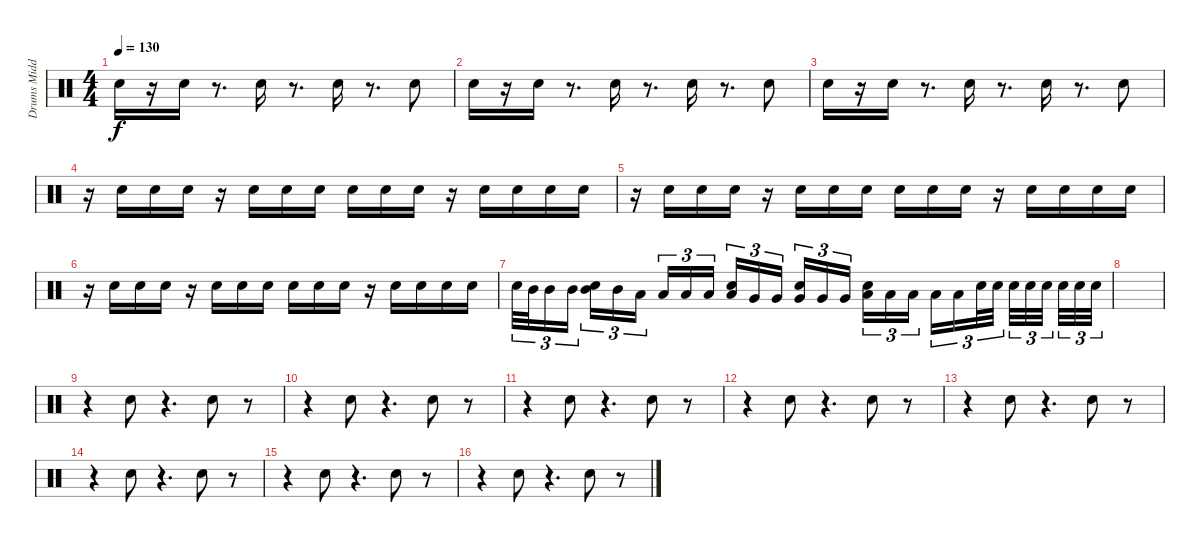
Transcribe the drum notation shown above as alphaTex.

\track ("Drums Middle" "Drums Midd") {instrument percussion}
\staff {score}
\articulation defaults
\ts (4 4)
\tempo 130
\clef neutral
\ks c "Electric Snare (hit)".16{dy f}
r.16 "Electric Snare (hit)".16 r.8{d} "Electric Snare (hit)".16 r.8{d} "Electric Snare (hit)".16 r.8{d} "Electric Snare (hit)".8 |
"Electric Snare (hit)".16 r.16 "Electric Snare (hit)".16 r.8{d} "Electric Snare (hit)".16 r.8{d} "Electric Snare (hit)".16 r.8{d} "Electric Snare (hit)".8 |
"Electric Snare (hit)".16 r.16 "Electric Snare (hit)".16 r.8{d} "Electric Snare (hit)".16 r.8{d} "Electric Snare (hit)".16 r.8{d} "Electric Snare (hit)".8 |
r.16 "Snare (hit) 2".16 "Snare (hit) 2".16 "Snare (hit) 2".16 r.16 "Electric Snare (hit)".16 "Snare (hit) 2".16 "Snare (hit) 2".16 "Electric Snare (hit)".16 "Electric Snare (hit)".16 "Snare (hit) 2".16 r.16 "Snare (hit) 2".16 "Electric Snare (hit)".16 "Electric Snare (hit)".16 "Snare (hit) 2".16 |
r.16 "Snare (hit) 2".16 "Snare (hit) 2".16 "Snare (hit) 2".16 r.16 "Electric Snare (hit)".16 "Snare (hit) 2".16 "Snare (hit) 2".16 "Electric Snare (hit)".16 "Electric Snare (hit)".16 "Snare (hit) 2".16 r.16 "Snare (hit) 2".16 "Electric Snare (hit)".16 "Electric Snare (hit)".16 "Snare (hit) 2".16 |
r.16 "Snare (hit) 2".16 "Snare (hit) 2".16 "Snare (hit) 2".16 r.16 "Electric Snare (hit)".16 "Snare (hit) 2".16 "Snare (hit) 2".16 "Electric Snare (hit)".16 "Electric Snare (hit)".16 "Snare (hit) 2".16 r.16 "Snare (hit) 2".16 "Electric Snare (hit)".16 "Electric Snare (hit)".16 "Snare (hit) 2".16 |
"Electric Snare (hit)".32{tu (3 2)} "Mid Tom (hit)".32{tu (3 2)} "Mid Tom (hit)".16{tu (3 2)} "Mid Tom (hit)".16{tu (3 2) beam splitsecondary} ("Electric Snare (hit)" "Mid Tom (hit)").16{tu (3 2)} "Mid Tom (hit)".16{tu (3 2)} "Low Tom (hit)".16{tu (3 2)} "Low Tom (hit)".16{tu (3 2)} "Low Tom (hit)".16{tu (3 2)} "Low Tom (hit)".16{tu (3 2) beam splitsecondary} ("Electric Snare (hit)" "Low Tom (hit)").16{tu (3 2)} "Very Low Tom (hit)".16{tu (3 2)} "Very Low Tom (hit)".16{tu (3 2)} ("Electric Snare (hit)" "Very Low Tom (hit)").16{tu (3 2)} "Very Low Tom (hit)".16{tu (3 2)} "Very Low Tom (hit)".16{tu (3 2) beam splitsecondary} ("Electric Snare (hit)" "Low Floor Tom (hit)").16{tu (3 2)} "Low Floor Tom (hit)".16{tu (3 2)} "Low Floor Tom (hit)".16{tu (3 2)} "Low Floor Tom (hit)".16{tu (3 2)} "Low Floor Tom (hit)".16{tu (3 2)} "Electric Snare (hit)".32{tu (3 2)} "Electric Snare (hit)".32{tu (3 2) beam splitsecondary} "Electric Snare (hit)".32{tu (3 2)} "Electric Snare (hit)".32{tu (3 2)} "Electric Snare (hit)".32{tu (3 2) beam splitsecondary} "Electric Snare (hit)".32{tu (3 2)} "Electric Snare (hit)".32{tu (3 2)} "Electric Snare (hit)".32{tu (3 2)} |
|
r.4 "Electric Snare (hit)".8 r.4{d} "Electric Snare (hit)".8 r.8 |
r.4 "Electric Snare (hit)".8 r.4{d} "Electric Snare (hit)".8 r.8 |
r.4 "Electric Snare (hit)".8 r.4{d} "Electric Snare (hit)".8 r.8 |
r.4 "Electric Snare (hit)".8 r.4{d} "Electric Snare (hit)".8 r.8 |
r.4 "Electric Snare (hit)".8 r.4{d} "Electric Snare (hit)".8 r.8 |
r.4 "Electric Snare (hit)".8 r.4{d} "Electric Snare (hit)".8 r.8 |
r.4 "Electric Snare (hit)".8 r.4{d} "Electric Snare (hit)".8 r.8 |
r.4 "Electric Snare (hit)".8 r.4{d} "Electric Snare (hit)".8 r.8
